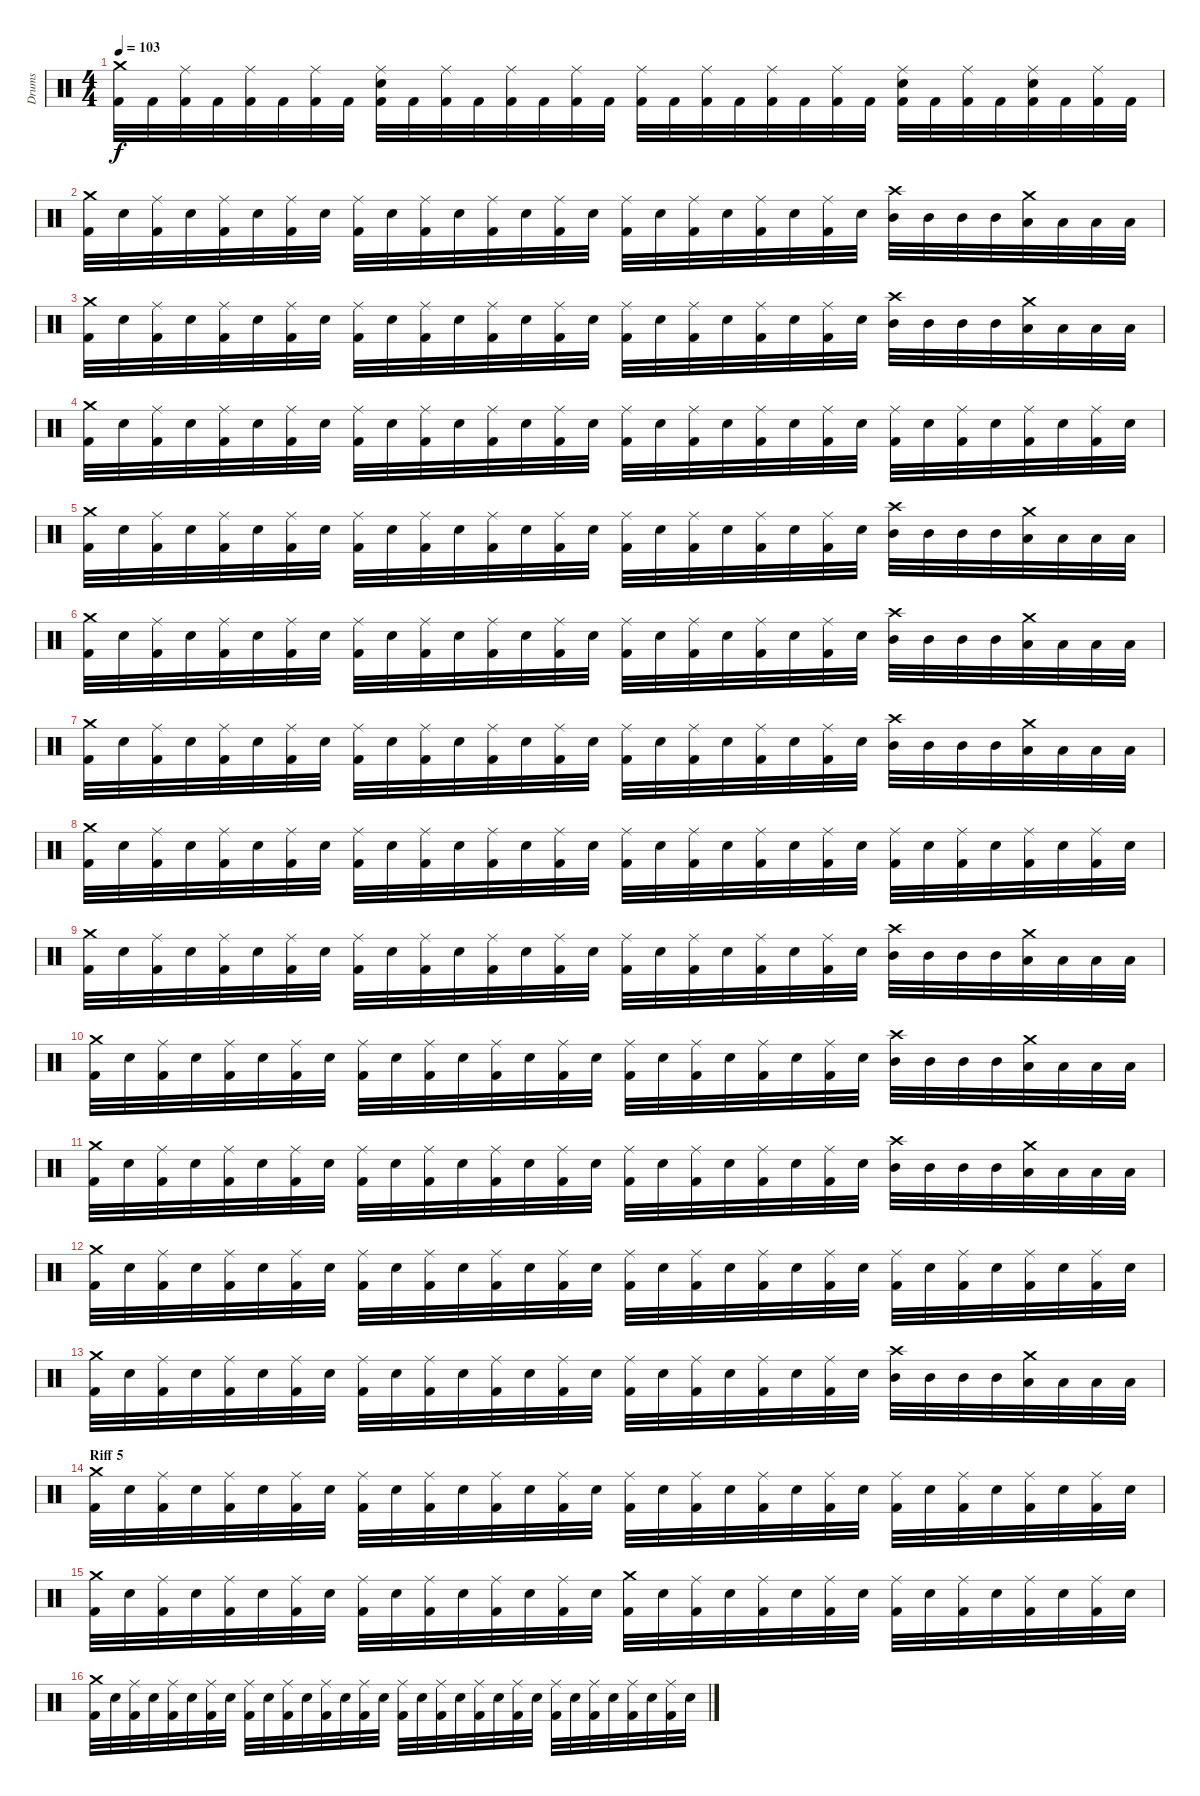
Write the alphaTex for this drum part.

\track ("Drums" "Drums") {instrument percussion}
\staff {score}
\articulation defaults
\ts (4 4)
\tempo 103
\clef neutral
\ks c
("Crash medium (hit)" "Kick (hit) 2").32{dy f} "Kick (hit) 2".32 ("Ride (middle)" "Kick (hit) 2").32 "Kick (hit) 2".32 ("Ride (middle)" "Kick (hit) 2").32 "Kick (hit) 2".32 ("Ride (middle)" "Kick (hit) 2").32 "Kick (hit) 2".32 ("Ride (middle)" "Electric Snare (hit)" "Kick (hit) 2").32 "Kick (hit) 2".32 ("Ride (middle)" "Kick (hit) 2").32 "Kick (hit) 2".32 ("Ride (middle)" "Kick (hit) 2").32 "Kick (hit) 2".32 ("Ride (middle)" "Kick (hit) 2").32 "Kick (hit) 2".32 ("Ride (middle)" "Kick (hit) 2").32 "Kick (hit) 2".32 ("Ride (middle)" "Kick (hit) 2").32 "Kick (hit) 2".32 ("Ride (middle)" "Kick (hit) 2").32 "Kick (hit) 2".32 ("Ride (middle)" "Kick (hit) 2").32 "Kick (hit) 2".32 ("Ride (middle)" "Electric Snare (hit)" "Kick (hit) 2").32 "Kick (hit) 2".32 ("Ride (middle)" "Kick (hit) 2").32 "Kick (hit) 2".32 ("Ride (middle)" "Electric Snare (hit)" "Kick (hit) 2").32 "Kick (hit) 2".32 ("Ride (middle)" "Kick (hit) 2").32 "Kick (hit) 2".32 |
("Crash medium (hit)" "Kick (hit) 2").32 "Electric Snare (hit)".32 ("Ride (middle)" "Kick (hit) 2").32 "Electric Snare (hit)".32 ("Ride (middle)" "Kick (hit) 2").32 "Electric Snare (hit)".32 ("Ride (middle)" "Kick (hit) 2").32 "Electric Snare (hit)".32 ("Ride (middle)" "Kick (hit) 2").32 "Electric Snare (hit)".32 ("Ride (middle)" "Kick (hit) 2").32 "Electric Snare (hit)".32 ("Ride (middle)" "Kick (hit) 2").32 "Electric Snare (hit)".32 ("Ride (middle)" "Kick (hit) 2").32 "Electric Snare (hit)".32 ("Ride (middle)" "Kick (hit) 2").32 "Electric Snare (hit)".32 ("Ride (middle)" "Kick (hit) 2").32 "Electric Snare (hit)".32 ("Ride (middle)" "Kick (hit) 2").32 "Electric Snare (hit)".32 ("Ride (middle)" "Kick (hit) 2").32 "Electric Snare (hit)".32 ("Crash high (hit)" "Mid Tom (hit)").32 "Mid Tom (hit)".32 "Mid Tom (hit)".32 "Mid Tom (hit)".32 ("Crash medium (hit)" "Low Tom (hit)").32 "Low Tom (hit)".32 "Low Tom (hit)".32 "Low Tom (hit)".32 |
("Crash medium (hit)" "Kick (hit) 2").32 "Electric Snare (hit)".32 ("Ride (middle)" "Kick (hit) 2").32 "Electric Snare (hit)".32 ("Ride (middle)" "Kick (hit) 2").32 "Electric Snare (hit)".32 ("Ride (middle)" "Kick (hit) 2").32 "Electric Snare (hit)".32 ("Ride (middle)" "Kick (hit) 2").32 "Electric Snare (hit)".32 ("Ride (middle)" "Kick (hit) 2").32 "Electric Snare (hit)".32 ("Ride (middle)" "Kick (hit) 2").32 "Electric Snare (hit)".32 ("Ride (middle)" "Kick (hit) 2").32 "Electric Snare (hit)".32 ("Ride (middle)" "Kick (hit) 2").32 "Electric Snare (hit)".32 ("Ride (middle)" "Kick (hit) 2").32 "Electric Snare (hit)".32 ("Ride (middle)" "Kick (hit) 2").32 "Electric Snare (hit)".32 ("Ride (middle)" "Kick (hit) 2").32 "Electric Snare (hit)".32 ("Crash high (hit)" "Mid Tom (hit)").32 "Mid Tom (hit)".32 "Mid Tom (hit)".32 "Mid Tom (hit)".32 ("Crash medium (hit)" "Low Tom (hit)").32 "Low Tom (hit)".32 "Low Tom (hit)".32 "Low Tom (hit)".32 |
("Crash medium (hit)" "Kick (hit) 2").32 "Electric Snare (hit)".32 ("Ride (middle)" "Kick (hit) 2").32 "Electric Snare (hit)".32 ("Ride (middle)" "Kick (hit) 2").32 "Electric Snare (hit)".32 ("Ride (middle)" "Kick (hit) 2").32 "Electric Snare (hit)".32 ("Ride (middle)" "Kick (hit) 2").32 "Electric Snare (hit)".32 ("Ride (middle)" "Kick (hit) 2").32 "Electric Snare (hit)".32 ("Ride (middle)" "Kick (hit) 2").32 "Electric Snare (hit)".32 ("Ride (middle)" "Kick (hit) 2").32 "Electric Snare (hit)".32 ("Ride (middle)" "Kick (hit) 2").32 "Electric Snare (hit)".32 ("Ride (middle)" "Kick (hit) 2").32 "Electric Snare (hit)".32 ("Ride (middle)" "Kick (hit) 2").32 "Electric Snare (hit)".32 ("Ride (middle)" "Kick (hit) 2").32 "Electric Snare (hit)".32 ("Ride (middle)" "Kick (hit) 2").32 "Electric Snare (hit)".32 ("Ride (middle)" "Kick (hit) 2").32 "Electric Snare (hit)".32 ("Ride (middle)" "Kick (hit) 2").32 "Electric Snare (hit)".32 ("Ride (middle)" "Kick (hit) 2").32 "Electric Snare (hit)".32 |
("Crash medium (hit)" "Kick (hit) 2").32 "Electric Snare (hit)".32 ("Ride (middle)" "Kick (hit) 2").32 "Electric Snare (hit)".32 ("Ride (middle)" "Kick (hit) 2").32 "Electric Snare (hit)".32 ("Ride (middle)" "Kick (hit) 2").32 "Electric Snare (hit)".32 ("Ride (middle)" "Kick (hit) 2").32 "Electric Snare (hit)".32 ("Ride (middle)" "Kick (hit) 2").32 "Electric Snare (hit)".32 ("Ride (middle)" "Kick (hit) 2").32 "Electric Snare (hit)".32 ("Ride (middle)" "Kick (hit) 2").32 "Electric Snare (hit)".32 ("Ride (middle)" "Kick (hit) 2").32 "Electric Snare (hit)".32 ("Ride (middle)" "Kick (hit) 2").32 "Electric Snare (hit)".32 ("Ride (middle)" "Kick (hit) 2").32 "Electric Snare (hit)".32 ("Ride (middle)" "Kick (hit) 2").32 "Electric Snare (hit)".32 ("Crash high (hit)" "Mid Tom (hit)").32 "Mid Tom (hit)".32 "Mid Tom (hit)".32 "Mid Tom (hit)".32 ("Crash medium (hit)" "Low Tom (hit)").32 "Low Tom (hit)".32 "Low Tom (hit)".32 "Low Tom (hit)".32 |
("Crash medium (hit)" "Kick (hit) 2").32 "Electric Snare (hit)".32 ("Ride (middle)" "Kick (hit) 2").32 "Electric Snare (hit)".32 ("Ride (middle)" "Kick (hit) 2").32 "Electric Snare (hit)".32 ("Ride (middle)" "Kick (hit) 2").32 "Electric Snare (hit)".32 ("Ride (middle)" "Kick (hit) 2").32 "Electric Snare (hit)".32 ("Ride (middle)" "Kick (hit) 2").32 "Electric Snare (hit)".32 ("Ride (middle)" "Kick (hit) 2").32 "Electric Snare (hit)".32 ("Ride (middle)" "Kick (hit) 2").32 "Electric Snare (hit)".32 ("Ride (middle)" "Kick (hit) 2").32 "Electric Snare (hit)".32 ("Ride (middle)" "Kick (hit) 2").32 "Electric Snare (hit)".32 ("Ride (middle)" "Kick (hit) 2").32 "Electric Snare (hit)".32 ("Ride (middle)" "Kick (hit) 2").32 "Electric Snare (hit)".32 ("Crash high (hit)" "Mid Tom (hit)").32 "Mid Tom (hit)".32 "Mid Tom (hit)".32 "Mid Tom (hit)".32 ("Crash medium (hit)" "Low Tom (hit)").32 "Low Tom (hit)".32 "Low Tom (hit)".32 "Low Tom (hit)".32 |
("Crash medium (hit)" "Kick (hit) 2").32 "Electric Snare (hit)".32 ("Ride (middle)" "Kick (hit) 2").32 "Electric Snare (hit)".32 ("Ride (middle)" "Kick (hit) 2").32 "Electric Snare (hit)".32 ("Ride (middle)" "Kick (hit) 2").32 "Electric Snare (hit)".32 ("Ride (middle)" "Kick (hit) 2").32 "Electric Snare (hit)".32 ("Ride (middle)" "Kick (hit) 2").32 "Electric Snare (hit)".32 ("Ride (middle)" "Kick (hit) 2").32 "Electric Snare (hit)".32 ("Ride (middle)" "Kick (hit) 2").32 "Electric Snare (hit)".32 ("Ride (middle)" "Kick (hit) 2").32 "Electric Snare (hit)".32 ("Ride (middle)" "Kick (hit) 2").32 "Electric Snare (hit)".32 ("Ride (middle)" "Kick (hit) 2").32 "Electric Snare (hit)".32 ("Ride (middle)" "Kick (hit) 2").32 "Electric Snare (hit)".32 ("Crash high (hit)" "Mid Tom (hit)").32 "Mid Tom (hit)".32 "Mid Tom (hit)".32 "Mid Tom (hit)".32 ("Crash medium (hit)" "Low Tom (hit)").32 "Low Tom (hit)".32 "Low Tom (hit)".32 "Low Tom (hit)".32 |
("Crash medium (hit)" "Kick (hit) 2").32 "Electric Snare (hit)".32 ("Ride (middle)" "Kick (hit) 2").32 "Electric Snare (hit)".32 ("Ride (middle)" "Kick (hit) 2").32 "Electric Snare (hit)".32 ("Ride (middle)" "Kick (hit) 2").32 "Electric Snare (hit)".32 ("Ride (middle)" "Kick (hit) 2").32 "Electric Snare (hit)".32 ("Ride (middle)" "Kick (hit) 2").32 "Electric Snare (hit)".32 ("Ride (middle)" "Kick (hit) 2").32 "Electric Snare (hit)".32 ("Ride (middle)" "Kick (hit) 2").32 "Electric Snare (hit)".32 ("Ride (middle)" "Kick (hit) 2").32 "Electric Snare (hit)".32 ("Ride (middle)" "Kick (hit) 2").32 "Electric Snare (hit)".32 ("Ride (middle)" "Kick (hit) 2").32 "Electric Snare (hit)".32 ("Ride (middle)" "Kick (hit) 2").32 "Electric Snare (hit)".32 ("Ride (middle)" "Kick (hit) 2").32 "Electric Snare (hit)".32 ("Ride (middle)" "Kick (hit) 2").32 "Electric Snare (hit)".32 ("Ride (middle)" "Kick (hit) 2").32 "Electric Snare (hit)".32 ("Ride (middle)" "Kick (hit) 2").32 "Electric Snare (hit)".32 |
("Crash medium (hit)" "Kick (hit) 2").32 "Electric Snare (hit)".32 ("Ride (middle)" "Kick (hit) 2").32 "Electric Snare (hit)".32 ("Ride (middle)" "Kick (hit) 2").32 "Electric Snare (hit)".32 ("Ride (middle)" "Kick (hit) 2").32 "Electric Snare (hit)".32 ("Ride (middle)" "Kick (hit) 2").32 "Electric Snare (hit)".32 ("Ride (middle)" "Kick (hit) 2").32 "Electric Snare (hit)".32 ("Ride (middle)" "Kick (hit) 2").32 "Electric Snare (hit)".32 ("Ride (middle)" "Kick (hit) 2").32 "Electric Snare (hit)".32 ("Ride (middle)" "Kick (hit) 2").32 "Electric Snare (hit)".32 ("Ride (middle)" "Kick (hit) 2").32 "Electric Snare (hit)".32 ("Ride (middle)" "Kick (hit) 2").32 "Electric Snare (hit)".32 ("Ride (middle)" "Kick (hit) 2").32 "Electric Snare (hit)".32 ("Crash high (hit)" "Mid Tom (hit)").32 "Mid Tom (hit)".32 "Mid Tom (hit)".32 "Mid Tom (hit)".32 ("Crash medium (hit)" "Low Tom (hit)").32 "Low Tom (hit)".32 "Low Tom (hit)".32 "Low Tom (hit)".32 |
("Crash medium (hit)" "Kick (hit) 2").32 "Electric Snare (hit)".32 ("Ride (middle)" "Kick (hit) 2").32 "Electric Snare (hit)".32 ("Ride (middle)" "Kick (hit) 2").32 "Electric Snare (hit)".32 ("Ride (middle)" "Kick (hit) 2").32 "Electric Snare (hit)".32 ("Ride (middle)" "Kick (hit) 2").32 "Electric Snare (hit)".32 ("Ride (middle)" "Kick (hit) 2").32 "Electric Snare (hit)".32 ("Ride (middle)" "Kick (hit) 2").32 "Electric Snare (hit)".32 ("Ride (middle)" "Kick (hit) 2").32 "Electric Snare (hit)".32 ("Ride (middle)" "Kick (hit) 2").32 "Electric Snare (hit)".32 ("Ride (middle)" "Kick (hit) 2").32 "Electric Snare (hit)".32 ("Ride (middle)" "Kick (hit) 2").32 "Electric Snare (hit)".32 ("Ride (middle)" "Kick (hit) 2").32 "Electric Snare (hit)".32 ("Crash high (hit)" "Mid Tom (hit)").32 "Mid Tom (hit)".32 "Mid Tom (hit)".32 "Mid Tom (hit)".32 ("Crash medium (hit)" "Low Tom (hit)").32 "Low Tom (hit)".32 "Low Tom (hit)".32 "Low Tom (hit)".32 |
("Crash medium (hit)" "Kick (hit) 2").32 "Electric Snare (hit)".32 ("Ride (middle)" "Kick (hit) 2").32 "Electric Snare (hit)".32 ("Ride (middle)" "Kick (hit) 2").32 "Electric Snare (hit)".32 ("Ride (middle)" "Kick (hit) 2").32 "Electric Snare (hit)".32 ("Ride (middle)" "Kick (hit) 2").32 "Electric Snare (hit)".32 ("Ride (middle)" "Kick (hit) 2").32 "Electric Snare (hit)".32 ("Ride (middle)" "Kick (hit) 2").32 "Electric Snare (hit)".32 ("Ride (middle)" "Kick (hit) 2").32 "Electric Snare (hit)".32 ("Ride (middle)" "Kick (hit) 2").32 "Electric Snare (hit)".32 ("Ride (middle)" "Kick (hit) 2").32 "Electric Snare (hit)".32 ("Ride (middle)" "Kick (hit) 2").32 "Electric Snare (hit)".32 ("Ride (middle)" "Kick (hit) 2").32 "Electric Snare (hit)".32 ("Crash high (hit)" "Mid Tom (hit)").32 "Mid Tom (hit)".32 "Mid Tom (hit)".32 "Mid Tom (hit)".32 ("Crash medium (hit)" "Low Tom (hit)").32 "Low Tom (hit)".32 "Low Tom (hit)".32 "Low Tom (hit)".32 |
("Crash medium (hit)" "Kick (hit) 2").32 "Electric Snare (hit)".32 ("Ride (middle)" "Kick (hit) 2").32 "Electric Snare (hit)".32 ("Ride (middle)" "Kick (hit) 2").32 "Electric Snare (hit)".32 ("Ride (middle)" "Kick (hit) 2").32 "Electric Snare (hit)".32 ("Ride (middle)" "Kick (hit) 2").32 "Electric Snare (hit)".32 ("Ride (middle)" "Kick (hit) 2").32 "Electric Snare (hit)".32 ("Ride (middle)" "Kick (hit) 2").32 "Electric Snare (hit)".32 ("Ride (middle)" "Kick (hit) 2").32 "Electric Snare (hit)".32 ("Ride (middle)" "Kick (hit) 2").32 "Electric Snare (hit)".32 ("Ride (middle)" "Kick (hit) 2").32 "Electric Snare (hit)".32 ("Ride (middle)" "Kick (hit) 2").32 "Electric Snare (hit)".32 ("Ride (middle)" "Kick (hit) 2").32 "Electric Snare (hit)".32 ("Ride (middle)" "Kick (hit) 2").32 "Electric Snare (hit)".32 ("Ride (middle)" "Kick (hit) 2").32 "Electric Snare (hit)".32 ("Ride (middle)" "Kick (hit) 2").32 "Electric Snare (hit)".32 ("Ride (middle)" "Kick (hit) 2").32 "Electric Snare (hit)".32 |
("Crash medium (hit)" "Kick (hit) 2").32 "Electric Snare (hit)".32 ("Ride (middle)" "Kick (hit) 2").32 "Electric Snare (hit)".32 ("Ride (middle)" "Kick (hit) 2").32 "Electric Snare (hit)".32 ("Ride (middle)" "Kick (hit) 2").32 "Electric Snare (hit)".32 ("Ride (middle)" "Kick (hit) 2").32 "Electric Snare (hit)".32 ("Ride (middle)" "Kick (hit) 2").32 "Electric Snare (hit)".32 ("Ride (middle)" "Kick (hit) 2").32 "Electric Snare (hit)".32 ("Ride (middle)" "Kick (hit) 2").32 "Electric Snare (hit)".32 ("Ride (middle)" "Kick (hit) 2").32 "Electric Snare (hit)".32 ("Ride (middle)" "Kick (hit) 2").32 "Electric Snare (hit)".32 ("Ride (middle)" "Kick (hit) 2").32 "Electric Snare (hit)".32 ("Ride (middle)" "Kick (hit) 2").32 "Electric Snare (hit)".32 ("Crash high (hit)" "Mid Tom (hit)").32 "Mid Tom (hit)".32 "Mid Tom (hit)".32 "Mid Tom (hit)".32 ("Crash medium (hit)" "Low Tom (hit)").32 "Low Tom (hit)".32 "Low Tom (hit)".32 "Low Tom (hit)".32 |
\section ("" "Riff 5")
("Crash medium (hit)" "Kick (hit) 2").32 "Electric Snare (hit)".32 ("Ride (middle)" "Kick (hit) 2").32 "Electric Snare (hit)".32 ("Ride (middle)" "Kick (hit) 2").32 "Electric Snare (hit)".32 ("Ride (middle)" "Kick (hit) 2").32 "Electric Snare (hit)".32 ("Ride (middle)" "Kick (hit) 2").32 "Electric Snare (hit)".32 ("Ride (middle)" "Kick (hit) 2").32 "Electric Snare (hit)".32 ("Ride (middle)" "Kick (hit) 2").32 "Electric Snare (hit)".32 ("Ride (middle)" "Kick (hit) 2").32 "Electric Snare (hit)".32 ("Ride (middle)" "Kick (hit) 2").32 "Electric Snare (hit)".32 ("Ride (middle)" "Kick (hit) 2").32 "Electric Snare (hit)".32 ("Ride (middle)" "Kick (hit) 2").32 "Electric Snare (hit)".32 ("Ride (middle)" "Kick (hit) 2").32 "Electric Snare (hit)".32 ("Ride (middle)" "Kick (hit) 2").32 "Electric Snare (hit)".32 ("Ride (middle)" "Kick (hit) 2").32 "Electric Snare (hit)".32 ("Ride (middle)" "Kick (hit) 2").32 "Electric Snare (hit)".32 ("Ride (middle)" "Kick (hit) 2").32 "Electric Snare (hit)".32 |
("Crash medium (hit)" "Kick (hit) 2").32 "Electric Snare (hit)".32 ("Ride (middle)" "Kick (hit) 2").32 "Electric Snare (hit)".32 ("Ride (middle)" "Kick (hit) 2").32 "Electric Snare (hit)".32 ("Ride (middle)" "Kick (hit) 2").32 "Electric Snare (hit)".32 ("Ride (middle)" "Kick (hit) 2").32 "Electric Snare (hit)".32 ("Ride (middle)" "Kick (hit) 2").32 "Electric Snare (hit)".32 ("Ride (middle)" "Kick (hit) 2").32 "Electric Snare (hit)".32 ("Ride (middle)" "Kick (hit) 2").32 "Electric Snare (hit)".32 ("Crash medium (hit)" "Kick (hit) 2").32 "Electric Snare (hit)".32 ("Ride (middle)" "Kick (hit) 2").32 "Electric Snare (hit)".32 ("Ride (middle)" "Kick (hit) 2").32 "Electric Snare (hit)".32 ("Ride (middle)" "Kick (hit) 2").32 "Electric Snare (hit)".32 ("Ride (middle)" "Kick (hit) 2").32 "Electric Snare (hit)".32 ("Ride (middle)" "Kick (hit) 2").32 "Electric Snare (hit)".32 ("Ride (middle)" "Kick (hit) 2").32 "Electric Snare (hit)".32 ("Ride (middle)" "Kick (hit) 2").32 "Electric Snare (hit)".32 |
("Crash medium (hit)" "Kick (hit) 2").32 "Electric Snare (hit)".32 ("Ride (middle)" "Kick (hit) 2").32 "Electric Snare (hit)".32 ("Ride (middle)" "Kick (hit) 2").32 "Electric Snare (hit)".32 ("Ride (middle)" "Kick (hit) 2").32 "Electric Snare (hit)".32 ("Ride (middle)" "Kick (hit) 2").32 "Electric Snare (hit)".32 ("Ride (middle)" "Kick (hit) 2").32 "Electric Snare (hit)".32 ("Ride (middle)" "Kick (hit) 2").32 "Electric Snare (hit)".32 ("Ride (middle)" "Kick (hit) 2").32 "Electric Snare (hit)".32 ("Ride (middle)" "Kick (hit) 2").32 "Electric Snare (hit)".32 ("Ride (middle)" "Kick (hit) 2").32 "Electric Snare (hit)".32 ("Ride (middle)" "Kick (hit) 2").32 "Electric Snare (hit)".32 ("Ride (middle)" "Kick (hit) 2").32 "Electric Snare (hit)".32 ("Ride (middle)" "Kick (hit) 2").32 "Electric Snare (hit)".32 ("Ride (middle)" "Kick (hit) 2").32 "Electric Snare (hit)".32 ("Ride (middle)" "Kick (hit) 2").32 "Electric Snare (hit)".32 ("Ride (middle)" "Kick (hit) 2").32 "Electric Snare (hit)".32
